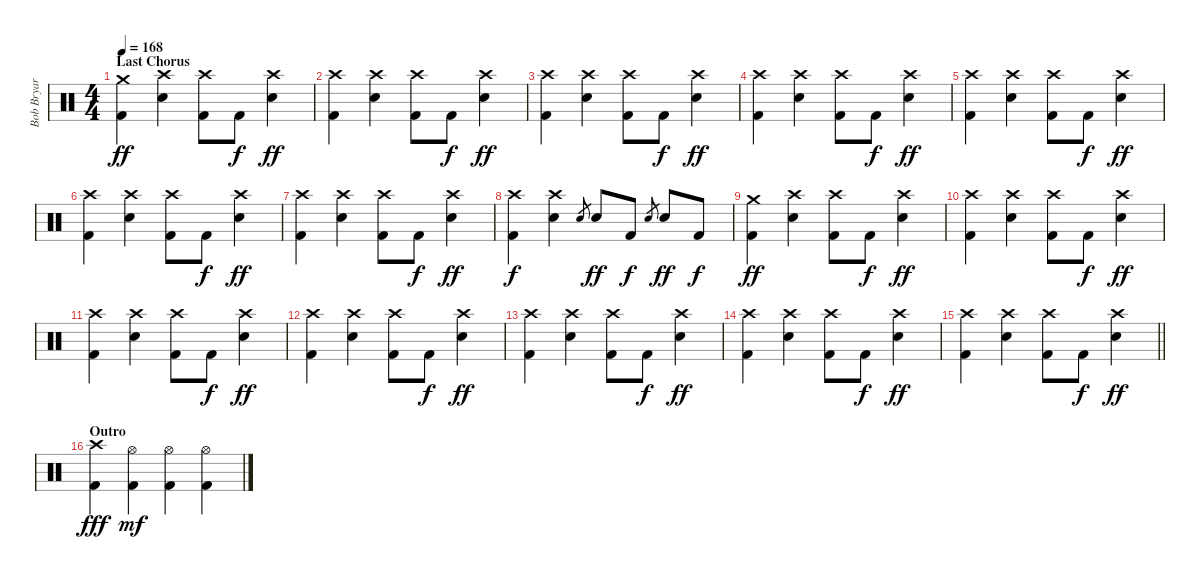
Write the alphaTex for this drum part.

\track ("Bob Bryar" "Bob Bryar") {instrument percussion}
\staff {score}
\articulation defaults
\ts (4 4)
\section ("" "Last Chorus")
\tempo 168
\clef neutral
\ks c
("Crash medium (hit)" "Kick (hit) 2").4{dy ff} ("Crash high (hit)" "Electric Snare (hit)").4 ("Crash high (hit)" "Kick (hit) 2").8 "Kick (hit) 2".8{dy f} ("Crash high (hit)" "Electric Snare (hit)").4{dy ff} |
("Crash high (hit)" "Kick (hit) 2").4 ("Crash high (hit)" "Electric Snare (hit)").4 ("Crash high (hit)" "Kick (hit) 2").8 "Kick (hit) 2".8{dy f} ("Crash high (hit)" "Electric Snare (hit)").4{dy ff} |
("Crash high (hit)" "Kick (hit) 2").4 ("Crash high (hit)" "Electric Snare (hit)").4 ("Crash high (hit)" "Kick (hit) 2").8 "Kick (hit) 2".8{dy f} ("Crash high (hit)" "Electric Snare (hit)").4{dy ff} |
("Crash high (hit)" "Kick (hit) 2").4 ("Crash high (hit)" "Electric Snare (hit)").4 ("Crash high (hit)" "Kick (hit) 2").8 "Kick (hit) 2".8{dy f} ("Crash high (hit)" "Electric Snare (hit)").4{dy ff} |
("Crash high (hit)" "Kick (hit) 2").4 ("Crash high (hit)" "Electric Snare (hit)").4 ("Crash high (hit)" "Kick (hit) 2").8 "Kick (hit) 2".8{dy f} ("Crash high (hit)" "Electric Snare (hit)").4{dy ff} |
("Crash high (hit)" "Kick (hit) 2").4 ("Crash high (hit)" "Electric Snare (hit)").4 ("Crash high (hit)" "Kick (hit) 2").8 "Kick (hit) 2".8{dy f} ("Crash high (hit)" "Electric Snare (hit)").4{dy ff} |
("Crash high (hit)" "Kick (hit) 2").4 ("Crash high (hit)" "Electric Snare (hit)").4 ("Crash high (hit)" "Kick (hit) 2").8 "Kick (hit) 2".8{dy f} ("Crash high (hit)" "Electric Snare (hit)").4{dy ff} |
("Crash high (hit)" "Kick (hit) 2").4{dy f} ("Crash high (hit)" "Electric Snare (hit)").4 "Electric Snare (hit)".8{gr} "Electric Snare (hit)".8{dy ff} "Kick (hit) 2".8{dy f} "Electric Snare (hit)".8{gr} "Electric Snare (hit)".8{dy ff} "Kick (hit) 2".8{dy f} |
("Crash medium (hit)" "Kick (hit) 2").4{dy ff} ("Crash high (hit)" "Electric Snare (hit)").4 ("Crash high (hit)" "Kick (hit) 2").8 "Kick (hit) 2".8{dy f} ("Crash high (hit)" "Electric Snare (hit)").4{dy ff} |
("Crash high (hit)" "Kick (hit) 2").4 ("Crash high (hit)" "Electric Snare (hit)").4 ("Crash high (hit)" "Kick (hit) 2").8 "Kick (hit) 2".8{dy f} ("Crash high (hit)" "Electric Snare (hit)").4{dy ff} |
("Crash high (hit)" "Kick (hit) 2").4 ("Crash high (hit)" "Electric Snare (hit)").4 ("Crash high (hit)" "Kick (hit) 2").8 "Kick (hit) 2".8{dy f} ("Crash high (hit)" "Electric Snare (hit)").4{dy ff} |
("Crash high (hit)" "Kick (hit) 2").4 ("Crash high (hit)" "Electric Snare (hit)").4 ("Crash high (hit)" "Kick (hit) 2").8 "Kick (hit) 2".8{dy f} ("Crash high (hit)" "Electric Snare (hit)").4{dy ff} |
("Crash high (hit)" "Kick (hit) 2").4 ("Crash high (hit)" "Electric Snare (hit)").4 ("Crash high (hit)" "Kick (hit) 2").8 "Kick (hit) 2".8{dy f} ("Crash high (hit)" "Electric Snare (hit)").4{dy ff} |
("Crash high (hit)" "Kick (hit) 2").4 ("Crash high (hit)" "Electric Snare (hit)").4 ("Crash high (hit)" "Kick (hit) 2").8 "Kick (hit) 2".8{dy f} ("Crash high (hit)" "Electric Snare (hit)").4{dy ff} |
\barLineRight lightlight
("Crash high (hit)" "Kick (hit) 2").4 ("Crash high (hit)" "Electric Snare (hit)").4 ("Crash high (hit)" "Kick (hit) 2").8 "Kick (hit) 2".8{dy f} ("Crash high (hit)" "Electric Snare (hit)").4{dy ff} |
\section ("" "Outro")
("Crash high (hit)" "Kick (hit) 2").4{dy fff} ("Hi-Hat (open)" "Kick (hit) 2").4{dy mf} ("Hi-Hat (open)" "Kick (hit) 2").4 ("Hi-Hat (open)" "Kick (hit) 2").4
